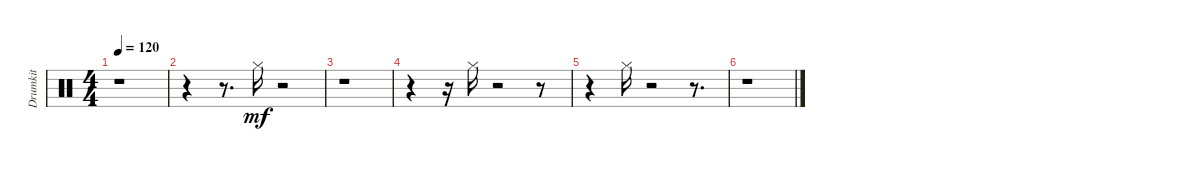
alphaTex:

\track ("Drumkit" "Drumkit") {instrument percussion}
\staff {score}
\articulation defaults
\ts (4 4)
\tempo 120
\clef neutral
\ks aminor
r.1{dy mf} |
r.4 r.8{d} "Hi-Hat (closed)".16 r.2 |
r.1 |
r.4 r.16 "Hi-Hat (closed)".16 r.2 r.8 |
r.4 "Hi-Hat (closed)".16 r.2 r.8{d} |
r.1
